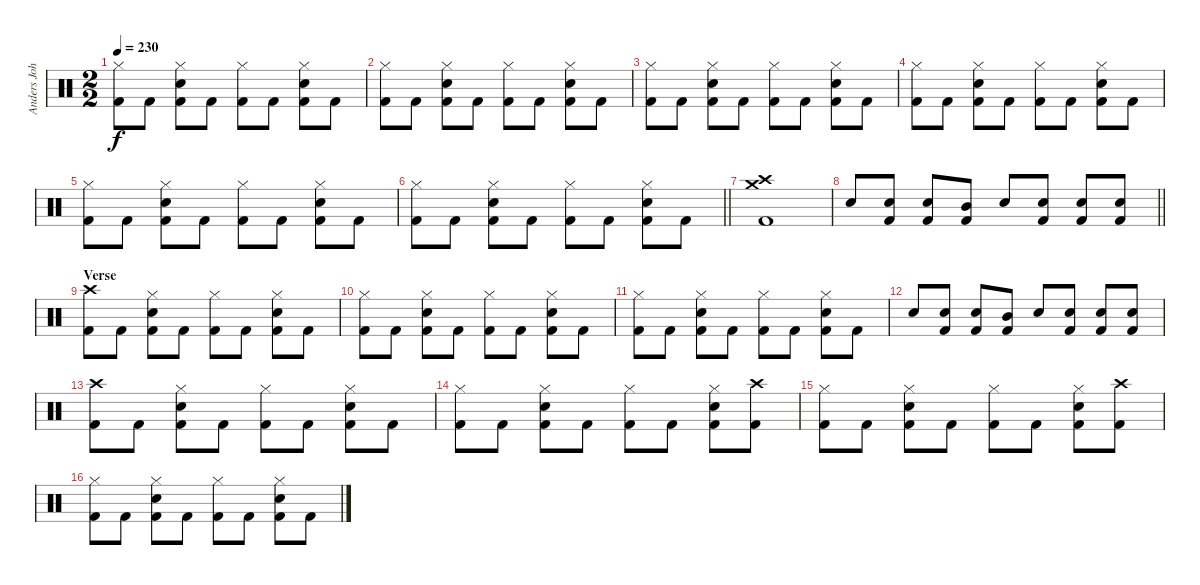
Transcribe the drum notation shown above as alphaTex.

\track ("Anders Johansson" "Anders Joh") {instrument percussion}
\staff {score}
\articulation defaults
\ts (2 2)
\tempo 230
\clef neutral
\ks c
("Hi-Hat (closed)" "Kick (hit) 2").8{dy f} "Kick (hit) 2".8 ("Electric Snare (hit)" "Hi-Hat (closed)" "Kick (hit) 2").8 "Kick (hit) 2".8 ("Hi-Hat (closed)" "Kick (hit) 2").8 "Kick (hit) 2".8 ("Electric Snare (hit)" "Hi-Hat (closed)" "Kick (hit) 2").8 "Kick (hit) 2".8 |
("Hi-Hat (closed)" "Kick (hit) 2").8 "Kick (hit) 2".8 ("Electric Snare (hit)" "Hi-Hat (closed)" "Kick (hit) 2").8 "Kick (hit) 2".8 ("Hi-Hat (closed)" "Kick (hit) 2").8 "Kick (hit) 2".8 ("Electric Snare (hit)" "Hi-Hat (closed)" "Kick (hit) 2").8 "Kick (hit) 2".8 |
("Hi-Hat (closed)" "Kick (hit) 2").8 "Kick (hit) 2".8 ("Electric Snare (hit)" "Hi-Hat (closed)" "Kick (hit) 2").8 "Kick (hit) 2".8 ("Hi-Hat (closed)" "Kick (hit) 2").8 "Kick (hit) 2".8 ("Electric Snare (hit)" "Hi-Hat (closed)" "Kick (hit) 2").8 "Kick (hit) 2".8 |
("Hi-Hat (closed)" "Kick (hit) 2").8 "Kick (hit) 2".8 ("Electric Snare (hit)" "Hi-Hat (closed)" "Kick (hit) 2").8 "Kick (hit) 2".8 ("Hi-Hat (closed)" "Kick (hit) 2").8 "Kick (hit) 2".8 ("Electric Snare (hit)" "Hi-Hat (closed)" "Kick (hit) 2").8 "Kick (hit) 2".8 |
("Hi-Hat (closed)" "Kick (hit) 2").8 "Kick (hit) 2".8 ("Electric Snare (hit)" "Hi-Hat (closed)" "Kick (hit) 2").8 "Kick (hit) 2".8 ("Hi-Hat (closed)" "Kick (hit) 2").8 "Kick (hit) 2".8 ("Electric Snare (hit)" "Hi-Hat (closed)" "Kick (hit) 2").8 "Kick (hit) 2".8 |
\barLineRight lightlight
("Hi-Hat (closed)" "Kick (hit) 2").8 "Kick (hit) 2".8 ("Electric Snare (hit)" "Hi-Hat (closed)" "Kick (hit) 2").8 "Kick (hit) 2".8 ("Hi-Hat (closed)" "Kick (hit) 2").8 "Kick (hit) 2".8 ("Electric Snare (hit)" "Hi-Hat (closed)" "Kick (hit) 2").8 "Kick (hit) 2".8 |
("Crash medium (hit)" "Crash high (hit)" "Kick (hit) 2").1 |
\barLineRight lightlight "Electric Snare (hit)".8
("Electric Snare (hit)" "Kick (hit) 2").8 ("Electric Snare (hit)" "Kick (hit) 2").8 ("Mid Tom (hit)" "Kick (hit) 2").8 "Electric Snare (hit)".8 ("Electric Snare (hit)" "Kick (hit) 2").8 ("Electric Snare (hit)" "Kick (hit) 2").8 ("Electric Snare (hit)" "Kick (hit) 2").8 |
\section ("" "Verse")
("Crash high (hit)" "Kick (hit) 2").8 "Kick (hit) 2".8 ("Electric Snare (hit)" "Hi-Hat (closed)" "Kick (hit) 2").8 "Kick (hit) 2".8 ("Hi-Hat (closed)" "Kick (hit) 2").8 "Kick (hit) 2".8 ("Electric Snare (hit)" "Hi-Hat (closed)" "Kick (hit) 2").8 "Kick (hit) 2".8 |
("Hi-Hat (closed)" "Kick (hit) 2").8 "Kick (hit) 2".8 ("Electric Snare (hit)" "Hi-Hat (closed)" "Kick (hit) 2").8 "Kick (hit) 2".8 ("Hi-Hat (closed)" "Kick (hit) 2").8 "Kick (hit) 2".8 ("Electric Snare (hit)" "Hi-Hat (closed)" "Kick (hit) 2").8 "Kick (hit) 2".8 |
("Hi-Hat (closed)" "Kick (hit) 2").8 "Kick (hit) 2".8 ("Electric Snare (hit)" "Hi-Hat (closed)" "Kick (hit) 2").8 "Kick (hit) 2".8 ("Hi-Hat (closed)" "Kick (hit) 2").8 "Kick (hit) 2".8 ("Electric Snare (hit)" "Hi-Hat (closed)" "Kick (hit) 2").8 "Kick (hit) 2".8 |
"Electric Snare (hit)".8 ("Electric Snare (hit)" "Kick (hit) 2").8 ("Electric Snare (hit)" "Kick (hit) 2").8 ("Mid Tom (hit)" "Kick (hit) 2").8 "Electric Snare (hit)".8 ("Electric Snare (hit)" "Kick (hit) 2").8 ("Electric Snare (hit)" "Kick (hit) 2").8 ("Electric Snare (hit)" "Kick (hit) 2").8 |
("Crash high (hit)" "Kick (hit) 2").8 "Kick (hit) 2".8 ("Electric Snare (hit)" "Hi-Hat (closed)" "Kick (hit) 2").8 "Kick (hit) 2".8 ("Hi-Hat (closed)" "Kick (hit) 2").8 "Kick (hit) 2".8 ("Electric Snare (hit)" "Hi-Hat (closed)" "Kick (hit) 2").8 "Kick (hit) 2".8 |
("Hi-Hat (closed)" "Kick (hit) 2").8 "Kick (hit) 2".8 ("Electric Snare (hit)" "Hi-Hat (closed)" "Kick (hit) 2").8 "Kick (hit) 2".8 ("Hi-Hat (closed)" "Kick (hit) 2").8 "Kick (hit) 2".8 ("Electric Snare (hit)" "Hi-Hat (closed)" "Kick (hit) 2").8 ("Crash high (hit)" "Kick (hit) 2").8 |
("Hi-Hat (closed)" "Kick (hit) 2").8 "Kick (hit) 2".8 ("Electric Snare (hit)" "Hi-Hat (closed)" "Kick (hit) 2").8 "Kick (hit) 2".8 ("Hi-Hat (closed)" "Kick (hit) 2").8 "Kick (hit) 2".8 ("Electric Snare (hit)" "Hi-Hat (closed)" "Kick (hit) 2").8 ("Crash high (hit)" "Kick (hit) 2").8 |
("Hi-Hat (closed)" "Kick (hit) 2").8 "Kick (hit) 2".8 ("Electric Snare (hit)" "Hi-Hat (closed)" "Kick (hit) 2").8 "Kick (hit) 2".8 ("Hi-Hat (closed)" "Kick (hit) 2").8 "Kick (hit) 2".8 ("Electric Snare (hit)" "Hi-Hat (closed)" "Kick (hit) 2").8 "Kick (hit) 2".8
